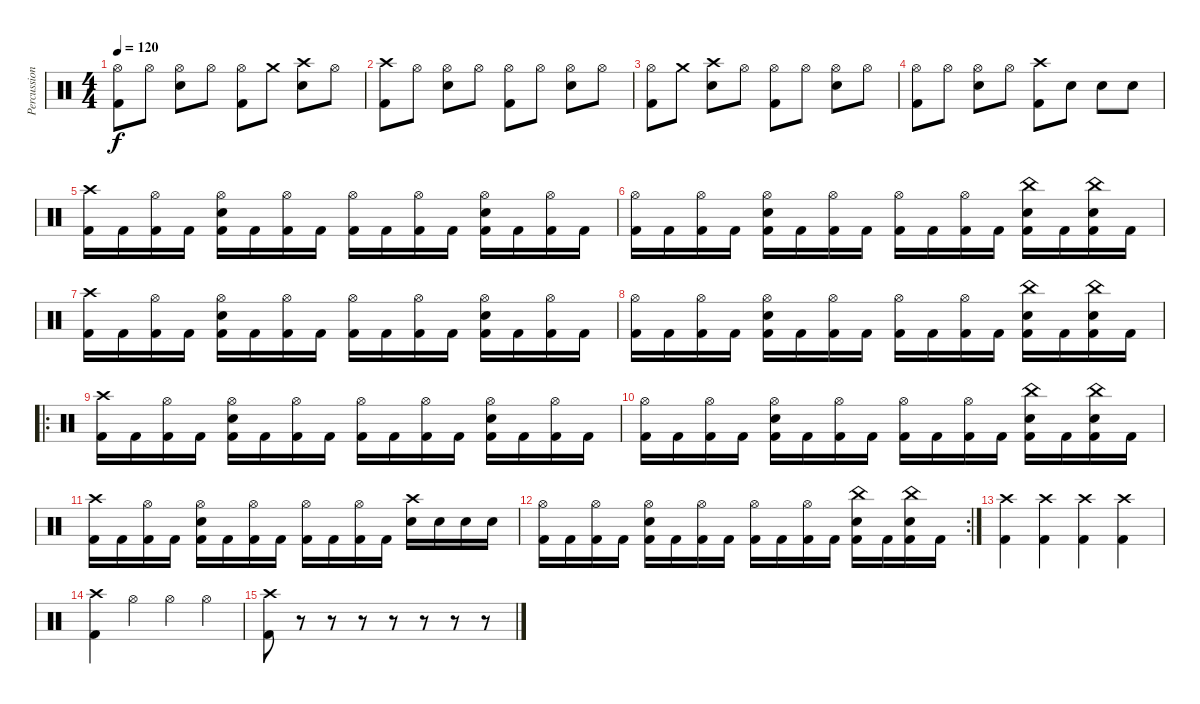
\track ("Percussion" "Percussion") {instrument percussion}
\staff {score}
\articulation defaults
\ts (4 4)
\tempo 120
\clef neutral
\ks c
("Hi-Hat (open)" "Kick (hit) 2").8{dy f} "Hi-Hat (open)".8 ("Hi-Hat (open)" "Snare (hit) 2").8 "Hi-Hat (open)".8 ("Hi-Hat (open)" "Kick (hit) 2").8 "Crash medium (hit)".8 ("Crash high (hit)" "Snare (hit) 2").8 "Hi-Hat (open)".8 |
("Crash high (hit)" "Kick (hit) 2").8 "Hi-Hat (open)".8 ("Hi-Hat (open)" "Snare (hit) 2").8 "Hi-Hat (open)".8 ("Hi-Hat (open)" "Kick (hit) 2").8 "Hi-Hat (open)".8 ("Hi-Hat (open)" "Snare (hit) 2").8 "Hi-Hat (open)".8 |
("Hi-Hat (open)" "Kick (hit) 2").8 "Crash medium (hit)".8 ("Crash high (hit)" "Snare (hit) 2").8 "Hi-Hat (open)".8 ("Hi-Hat (open)" "Kick (hit) 2").8 "Hi-Hat (open)".8 ("Hi-Hat (open)" "Snare (hit) 2").8 "Hi-Hat (open)".8 |
("Hi-Hat (open)" "Kick (hit) 2").8 "Hi-Hat (open)".8 ("Hi-Hat (open)" "Snare (hit) 2").8 "Hi-Hat (open)".8 ("Crash high (hit)" "Kick (hit) 2").8 "Snare (hit) 2".8 "Snare (hit) 2".8 "Snare (hit) 2".8 |
("Crash high (hit)" "Kick (hit) 2").16 "Kick (hit) 2".16 ("Hi-Hat (open)" "Kick (hit) 2").16 "Kick (hit) 2".16 ("Hi-Hat (open)" "Snare (hit) 2" "Kick (hit) 2").16 "Kick (hit) 2".16 ("Hi-Hat (open)" "Kick (hit) 2").16 "Kick (hit) 2".16 ("Hi-Hat (open)" "Kick (hit) 2").16 "Kick (hit) 2".16 ("Hi-Hat (open)" "Kick (hit) 2").16 "Kick (hit) 2".16 ("Hi-Hat (open)" "Snare (hit) 2" "Kick (hit) 2").16 "Kick (hit) 2".16 ("Hi-Hat (open)" "Kick (hit) 2").16 "Kick (hit) 2".16 |
("Hi-Hat (open)" "Kick (hit) 2").16 "Kick (hit) 2".16 ("Hi-Hat (open)" "Kick (hit) 2").16 "Kick (hit) 2".16 ("Hi-Hat (open)" "Snare (hit) 2" "Kick (hit) 2").16 "Kick (hit) 2".16 ("Hi-Hat (open)" "Kick (hit) 2").16 "Kick (hit) 2".16 ("Hi-Hat (open)" "Kick (hit) 2").16 "Kick (hit) 2".16 ("Hi-Hat (open)" "Kick (hit) 2").16 "Kick (hit) 2".16 ("China (hit)" "Snare (hit) 2" "Kick (hit) 2").16 "Kick (hit) 2".16 ("China (hit)" "Snare (hit) 2" "Kick (hit) 2").16 "Kick (hit) 2".16 |
("Crash high (hit)" "Kick (hit) 2").16 "Kick (hit) 2".16 ("Hi-Hat (open)" "Kick (hit) 2").16 "Kick (hit) 2".16 ("Hi-Hat (open)" "Snare (hit) 2" "Kick (hit) 2").16 "Kick (hit) 2".16 ("Hi-Hat (open)" "Kick (hit) 2").16 "Kick (hit) 2".16 ("Hi-Hat (open)" "Kick (hit) 2").16 "Kick (hit) 2".16 ("Hi-Hat (open)" "Kick (hit) 2").16 "Kick (hit) 2".16 ("Hi-Hat (open)" "Snare (hit) 2" "Kick (hit) 2").16 "Kick (hit) 2".16 ("Hi-Hat (open)" "Kick (hit) 2").16 "Kick (hit) 2".16 |
("Hi-Hat (open)" "Kick (hit) 2").16 "Kick (hit) 2".16 ("Hi-Hat (open)" "Kick (hit) 2").16 "Kick (hit) 2".16 ("Hi-Hat (open)" "Snare (hit) 2" "Kick (hit) 2").16 "Kick (hit) 2".16 ("Hi-Hat (open)" "Kick (hit) 2").16 "Kick (hit) 2".16 ("Hi-Hat (open)" "Kick (hit) 2").16 "Kick (hit) 2".16 ("Hi-Hat (open)" "Kick (hit) 2").16 "Kick (hit) 2".16 ("China (hit)" "Snare (hit) 2" "Kick (hit) 2").16 "Kick (hit) 2".16 ("China (hit)" "Snare (hit) 2" "Kick (hit) 2").16 "Kick (hit) 2".16 |
\ro
("Crash high (hit)" "Kick (hit) 2").16 "Kick (hit) 2".16 ("Hi-Hat (open)" "Kick (hit) 2").16 "Kick (hit) 2".16 ("Hi-Hat (open)" "Snare (hit) 2" "Kick (hit) 2").16 "Kick (hit) 2".16 ("Hi-Hat (open)" "Kick (hit) 2").16 "Kick (hit) 2".16 ("Hi-Hat (open)" "Kick (hit) 2").16 "Kick (hit) 2".16 ("Hi-Hat (open)" "Kick (hit) 2").16 "Kick (hit) 2".16 ("Hi-Hat (open)" "Snare (hit) 2" "Kick (hit) 2").16 "Kick (hit) 2".16 ("Hi-Hat (open)" "Kick (hit) 2").16 "Kick (hit) 2".16 |
("Hi-Hat (open)" "Kick (hit) 2").16 "Kick (hit) 2".16 ("Hi-Hat (open)" "Kick (hit) 2").16 "Kick (hit) 2".16 ("Hi-Hat (open)" "Snare (hit) 2" "Kick (hit) 2").16 "Kick (hit) 2".16 ("Hi-Hat (open)" "Kick (hit) 2").16 "Kick (hit) 2".16 ("Hi-Hat (open)" "Kick (hit) 2").16 "Kick (hit) 2".16 ("Hi-Hat (open)" "Kick (hit) 2").16 "Kick (hit) 2".16 ("China (hit)" "Snare (hit) 2" "Kick (hit) 2").16 "Kick (hit) 2".16 ("China (hit)" "Snare (hit) 2" "Kick (hit) 2").16 "Kick (hit) 2".16 |
("Crash high (hit)" "Kick (hit) 2").16 "Kick (hit) 2".16 ("Hi-Hat (open)" "Kick (hit) 2").16 "Kick (hit) 2".16 ("Hi-Hat (open)" "Snare (hit) 2" "Kick (hit) 2").16 "Kick (hit) 2".16 ("Hi-Hat (open)" "Kick (hit) 2").16 "Kick (hit) 2".16 ("Hi-Hat (open)" "Kick (hit) 2").16 "Kick (hit) 2".16 ("Hi-Hat (open)" "Kick (hit) 2").16 "Kick (hit) 2".16 ("Crash high (hit)" "Snare (hit) 2").16 "Snare (hit) 2".16 "Snare (hit) 2".16 "Snare (hit) 2".16 |
\rc 2
("Hi-Hat (open)" "Kick (hit) 2").16 "Kick (hit) 2".16 ("Hi-Hat (open)" "Kick (hit) 2").16 "Kick (hit) 2".16 ("Hi-Hat (open)" "Snare (hit) 2" "Kick (hit) 2").16 "Kick (hit) 2".16 ("Hi-Hat (open)" "Kick (hit) 2").16 "Kick (hit) 2".16 ("Hi-Hat (open)" "Kick (hit) 2").16 "Kick (hit) 2".16 ("Hi-Hat (open)" "Kick (hit) 2").16 "Kick (hit) 2".16 ("China (hit)" "Snare (hit) 2" "Kick (hit) 2").16 "Kick (hit) 2".16 ("China (hit)" "Snare (hit) 2" "Kick (hit) 2").16 "Kick (hit) 2".16 |
("Crash high (hit)" "Kick (hit) 2").4 ("Crash high (hit)" "Kick (hit) 2").4 ("Crash high (hit)" "Kick (hit) 2").4 ("Crash high (hit)" "Kick (hit) 2").4 |
("Crash high (hit)" "Kick (hit) 2").4 "Hi-Hat (open)".4 "Hi-Hat (open)".4 "Hi-Hat (open)".4 |
("Crash high (hit)" "Kick (hit) 2").8 r.8 r.8 r.8 r.8 r.8 r.8 r.8
